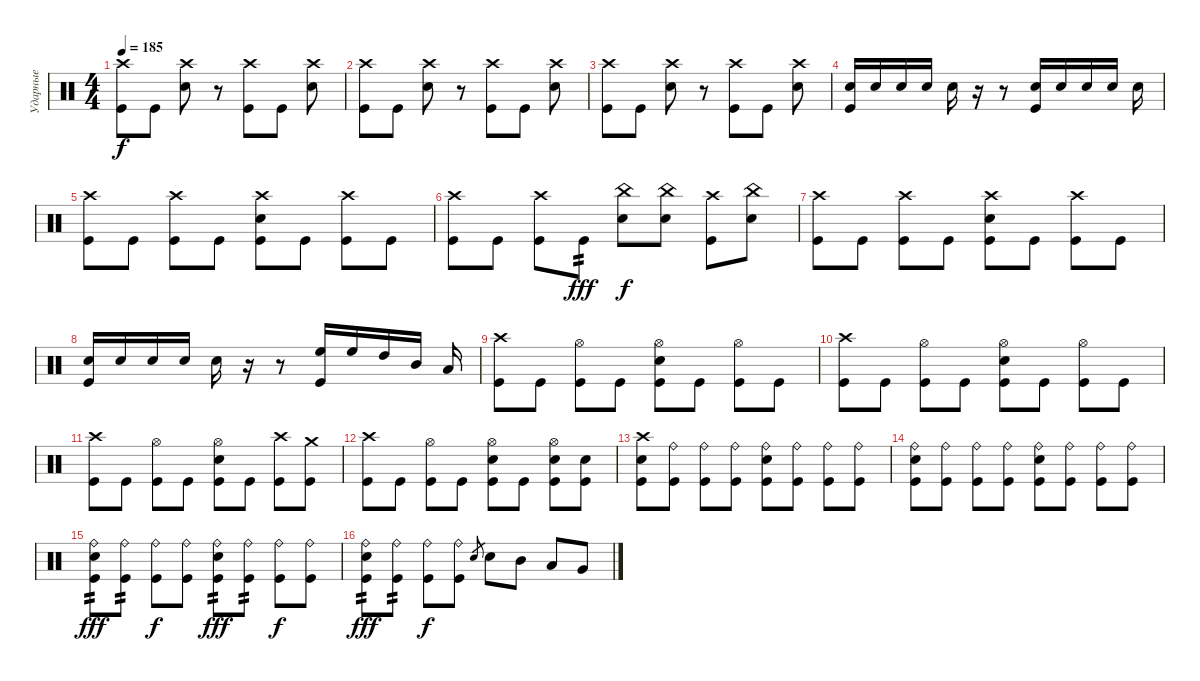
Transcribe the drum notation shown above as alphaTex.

\track ("Ударные" "Ударные") {instrument percussion}
\staff {score}
\articulation defaults
\ts (4 4)
\tempo 185
\clef neutral
\ks c
("Crash high (hit)" "Kick (hit)").8{dy f} "Kick (hit)".8 ("Crash high (hit)" "Snare (hit) 2").8 r.8 ("Crash high (hit)" "Kick (hit)").8 "Kick (hit)".8 ("Crash high (hit)" "Snare (hit) 2").8 |
("Crash high (hit)" "Kick (hit)").8 "Kick (hit)".8 ("Crash high (hit)" "Snare (hit) 2").8 r.8 ("Crash high (hit)" "Kick (hit)").8 "Kick (hit)".8 ("Crash high (hit)" "Snare (hit) 2").8 |
("Crash high (hit)" "Kick (hit)").8 "Kick (hit)".8 ("Crash high (hit)" "Snare (hit) 2").8 r.8 ("Crash high (hit)" "Kick (hit)").8 "Kick (hit)".8 ("Crash high (hit)" "Snare (hit) 2").8 |
("Snare (hit) 2" "Kick (hit)").16 "Snare (hit) 2".16 "Snare (hit) 2".16 "Snare (hit) 2".16 "Snare (hit) 2".16 r.16 r.8 ("Snare (hit) 2" "Kick (hit)").16 "Snare (hit) 2".16 "Snare (hit) 2".16 "Snare (hit) 2".16 "Snare (hit) 2".16 |
("Crash high (hit)" "Kick (hit)").8 "Kick (hit)".8 ("Crash high (hit)" "Kick (hit)").8 "Kick (hit)".8 ("Crash high (hit)" "Kick (hit)" "Snare (hit) 2").8 "Kick (hit)".8 ("Crash high (hit)" "Kick (hit)").8 "Kick (hit)".8 |
("Crash high (hit)" "Kick (hit)").8 "Kick (hit)".8 ("Crash high (hit)" "Kick (hit)").8 "Kick (hit)".8{tp 2 dy fff} ("China (hit)" "Snare (hit) 2").8{dy f} ("China (hit)" "Snare (hit) 2").8 ("Crash high (hit)" "Kick (hit)").8 ("China (hit)" "Snare (hit) 2").8 |
("Crash high (hit)" "Kick (hit)").8 "Kick (hit)".8 ("Crash high (hit)" "Kick (hit)").8 "Kick (hit)".8 ("Crash high (hit)" "Kick (hit)" "Snare (hit) 2").8 "Kick (hit)".8 ("Crash high (hit)" "Kick (hit)").8 "Kick (hit)".8 |
("Snare (hit) 2" "Kick (hit)").16 "Snare (hit) 2".16 "Snare (hit) 2".16 "Snare (hit) 2".16 "Snare (hit) 2".16 r.16 r.8 ("High Floor Tom (hit)" "Kick (hit)").16 "High Floor Tom (hit)".16 "High Tom (hit)".16 "Mid Tom (hit)".16 "Low Tom (hit)".16 |
("Crash high (hit)" "Kick (hit)").8 "Kick (hit)".8 ("Hi-Hat (open)" "Kick (hit)").8 "Kick (hit)".8 ("Hi-Hat (open)" "Kick (hit)" "Snare (hit) 2").8 "Kick (hit)".8 ("Hi-Hat (open)" "Kick (hit)").8 "Kick (hit)".8 |
("Crash high (hit)" "Kick (hit)").8 "Kick (hit)".8 ("Hi-Hat (open)" "Kick (hit)").8 "Kick (hit)".8 ("Hi-Hat (open)" "Kick (hit)" "Snare (hit) 2").8 "Kick (hit)".8 ("Hi-Hat (open)" "Kick (hit)").8 "Kick (hit)".8 |
("Crash high (hit)" "Kick (hit)").8 "Kick (hit)".8 ("Hi-Hat (open)" "Kick (hit)").8 "Kick (hit)".8 ("Hi-Hat (open)" "Kick (hit)" "Snare (hit) 2").8 "Kick (hit)".8 ("Crash high (hit)" "Kick (hit)").8 ("Crash medium (hit)" "Kick (hit)").8 |
("Crash high (hit)" "Kick (hit)").8 "Kick (hit)".8 ("Hi-Hat (open)" "Kick (hit)").8 "Kick (hit)".8 ("Hi-Hat (open)" "Kick (hit)" "Snare (hit) 2").8 "Kick (hit)".8 ("Hi-Hat (open)" "Kick (hit)" "Snare (hit) 2").8 ("Kick (hit)" "Snare (hit) 2").8 |
("Kick (hit)" "Crash high (hit)" "Snare (hit) 2").8 ("Kick (hit)" "Ride (bell)").8 ("Kick (hit)" "Ride (bell)").8 ("Kick (hit)" "Ride (bell)").8 ("Kick (hit)" "Ride (bell)" "Snare (hit) 2").8 ("Kick (hit)" "Ride (bell)").8 ("Kick (hit)" "Ride (bell)").8 ("Kick (hit)" "Ride (bell)").8 |
("Kick (hit)" "Ride (bell)" "Snare (hit) 2").8 ("Kick (hit)" "Ride (bell)").8 ("Kick (hit)" "Ride (bell)").8 ("Kick (hit)" "Ride (bell)").8 ("Kick (hit)" "Ride (bell)" "Snare (hit) 2").8 ("Kick (hit)" "Ride (bell)").8 ("Kick (hit)" "Ride (bell)").8 ("Kick (hit)" "Ride (bell)").8 |
("Kick (hit)" "Ride (bell)" "Snare (hit) 2").8{tp 2 dy fff} ("Kick (hit)" "Ride (bell)").8{tp 2} ("Kick (hit)" "Ride (bell)").8{dy f} ("Kick (hit)" "Ride (bell)").8 ("Kick (hit)" "Ride (bell)" "Snare (hit) 2").8{tp 2 dy fff} ("Kick (hit)" "Ride (bell)").8{tp 2} ("Kick (hit)" "Ride (bell)").8{dy f} ("Kick (hit)" "Ride (bell)").8 |
("Kick (hit)" "Ride (bell)" "Snare (hit) 2").8{tp 2 dy fff} ("Kick (hit)" "Ride (bell)").8{tp 2} ("Kick (hit)" "Ride (bell)").8{dy f} ("Kick (hit)" "Ride (bell)").8 "Snare (hit) 2".8{gr} "Snare (hit) 2".8 "Mid Tom (hit)".8 "Low Tom (hit)".8 "Very Low Tom (hit)".8
